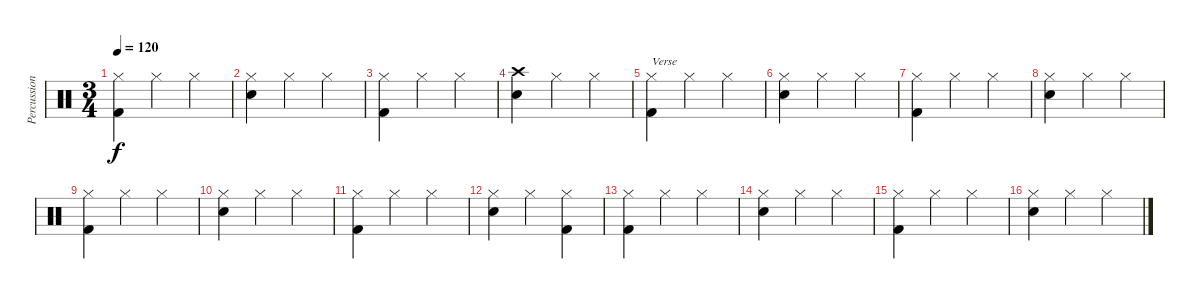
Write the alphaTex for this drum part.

\track ("Percussion" "Percussion") {instrument percussion}
\staff {score}
\articulation defaults
\ts (3 4)
\tempo 120
\clef neutral
\ks c
("Kick (hit) 2" "Hi-Hat (closed)").4{dy f} "Hi-Hat (closed)".4 "Hi-Hat (closed)".4 |
("Snare (hit) 2" "Hi-Hat (closed)").4 "Hi-Hat (closed)".4 "Hi-Hat (closed)".4 |
("Kick (hit) 2" "Hi-Hat (closed)").4 "Hi-Hat (closed)".4 "Hi-Hat (closed)".4 |
("Snare (hit) 2" "Crash high (hit)").4 "Hi-Hat (closed)".4 "Hi-Hat (closed)".4 |
("Kick (hit) 2" "Hi-Hat (closed)").4{txt "Verse"} "Hi-Hat (closed)".4 "Hi-Hat (closed)".4 |
("Snare (hit) 2" "Hi-Hat (closed)").4 "Hi-Hat (closed)".4 "Hi-Hat (closed)".4 |
("Kick (hit) 2" "Hi-Hat (closed)").4 "Hi-Hat (closed)".4 "Hi-Hat (closed)".4 |
("Snare (hit) 2" "Hi-Hat (closed)").4 "Hi-Hat (closed)".4 "Hi-Hat (closed)".4 |
("Kick (hit) 2" "Hi-Hat (closed)").4 "Hi-Hat (closed)".4 "Hi-Hat (closed)".4 |
("Snare (hit) 2" "Hi-Hat (closed)").4 "Hi-Hat (closed)".4 "Hi-Hat (closed)".4 |
("Kick (hit) 2" "Hi-Hat (closed)").4 "Hi-Hat (closed)".4 "Hi-Hat (closed)".4 |
("Snare (hit) 2" "Hi-Hat (closed)").4 "Hi-Hat (closed)".4 ("Kick (hit) 2" "Hi-Hat (closed)").4 |
("Kick (hit) 2" "Hi-Hat (closed)").4 "Hi-Hat (closed)".4 "Hi-Hat (closed)".4 |
("Snare (hit) 2" "Hi-Hat (closed)").4 "Hi-Hat (closed)".4 "Hi-Hat (closed)".4 |
("Kick (hit) 2" "Hi-Hat (closed)").4 "Hi-Hat (closed)".4 "Hi-Hat (closed)".4 |
("Snare (hit) 2" "Hi-Hat (closed)").4 "Hi-Hat (closed)".4 "Hi-Hat (closed)".4
